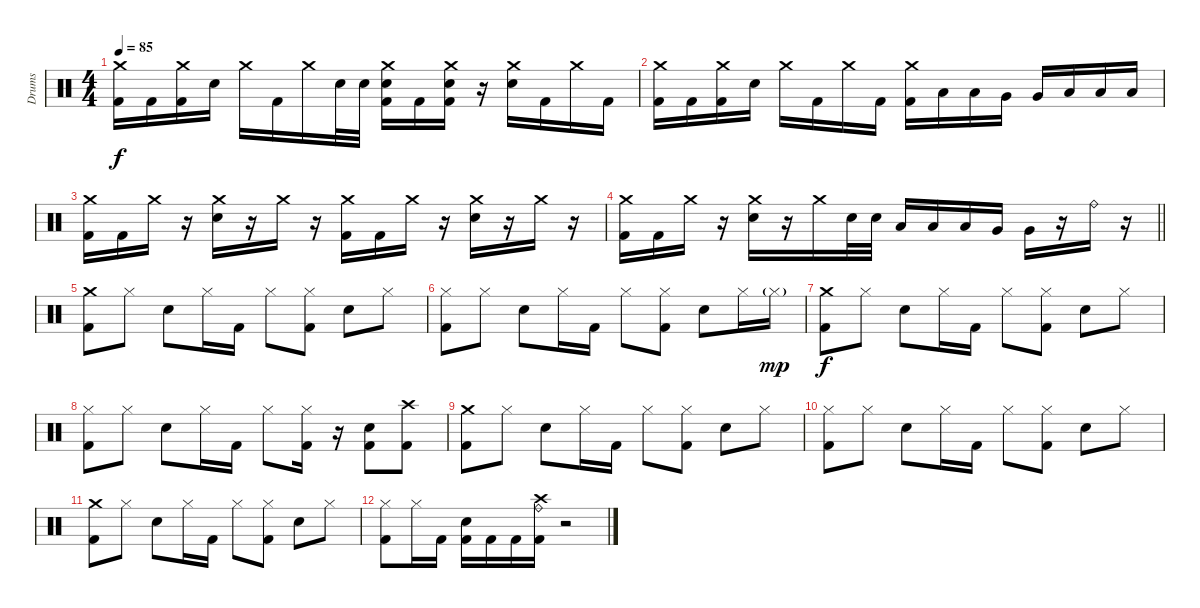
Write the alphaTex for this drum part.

\track ("Drums" "Drums") {instrument percussion}
\staff {score}
\articulation defaults
\ts (4 4)
\tempo 85
\clef neutral
\ks c
("Crash medium (hit)" "Kick (hit) 2").16{dy f} "Kick (hit) 2".16 ("Crash medium (hit)" "Kick (hit) 2").16 "Snare (hit) 2".16 "Crash medium (hit)".16 "Kick (hit) 2".16 "Crash medium (hit)".16 "Snare (hit) 2".32 "Snare (hit) 2".32 ("Crash medium (hit)" "Snare (hit) 2" "Kick (hit) 2").16 "Kick (hit) 2".16 ("Crash medium (hit)" "Snare (hit) 2" "Kick (hit) 2").16 r.16 ("Crash medium (hit)" "Snare (hit) 2").16 "Kick (hit) 2".16 "Crash medium (hit)".16 "Kick (hit) 2".16 |
("Crash medium (hit)" "Kick (hit) 2").16 "Kick (hit) 2".16 ("Crash medium (hit)" "Kick (hit) 2").16 "Snare (hit) 2".16 "Crash medium (hit)".16 "Kick (hit) 2".16 "Crash medium (hit)".16 "Kick (hit) 2".16 ("Crash medium (hit)" "Kick (hit) 2").16 "Low Tom (hit)".16 "Low Tom (hit)".16 "Very Low Tom (hit)".16 "Very Low Tom (hit)".16 "Low Floor Tom (hit)".16 "Low Floor Tom (hit)".16 "Low Floor Tom (hit)".16 |
("Crash medium (hit)" "Kick (hit) 2").16 "Kick (hit) 2".16 "Crash medium (hit)".16 r.16 ("Crash medium (hit)" "Snare (hit) 2").16 r.16 "Crash medium (hit)".16 r.16 ("Crash medium (hit)" "Kick (hit) 2").16 "Kick (hit) 2".16 "Crash medium (hit)".16 r.16 ("Crash medium (hit)" "Snare (hit) 2").16 r.16 "Crash medium (hit)".16 r.16 |
\barLineRight lightlight
("Crash medium (hit)" "Kick (hit) 2").16 "Kick (hit) 2".16 "Crash medium (hit)".16 r.16 ("Crash medium (hit)" "Snare (hit) 2").16 r.16 "Crash medium (hit)".16 "Snare (hit) 2".32 "Snare (hit) 2".32 "Low Floor Tom (hit)".16 "Low Tom (hit)".16 "Low Tom (hit)".16 "Very Low Tom (hit)".16 "Very Low Tom (hit)".16 r.16 "Ride (bell)".16 r.16 |
("Crash medium (hit)" "Kick (hit) 2").8 "Hi-Hat (closed)".8 "Snare (hit) 2".8 "Hi-Hat (closed)".16 "Kick (hit) 2".16 "Hi-Hat (closed)".8 ("Hi-Hat (closed)" "Kick (hit) 2").8 "Snare (hit) 2".8 "Hi-Hat (closed)".8 |
("Hi-Hat (closed)" "Kick (hit) 2").8 "Hi-Hat (closed)".8 "Snare (hit) 2".8 "Hi-Hat (closed)".16 "Kick (hit) 2".16 "Hi-Hat (closed)".8 ("Hi-Hat (closed)" "Kick (hit) 2").8 "Snare (hit) 2".8 "Hi-Hat (closed)".16 "Hi-Hat (closed)"{g}.16{dy mp} |
("Crash medium (hit)" "Kick (hit) 2").8{dy f} "Hi-Hat (closed)".8 "Snare (hit) 2".8 "Hi-Hat (closed)".16 "Kick (hit) 2".16 "Hi-Hat (closed)".8 ("Hi-Hat (closed)" "Kick (hit) 2").8 "Snare (hit) 2".8 "Hi-Hat (closed)".8 |
("Hi-Hat (closed)" "Kick (hit) 2").8 "Hi-Hat (closed)".8 "Snare (hit) 2".8 "Hi-Hat (closed)".16 "Kick (hit) 2".16 "Hi-Hat (closed)".8 ("Hi-Hat (closed)" "Kick (hit) 2").16 r.16 ("Snare (hit) 2" "Kick (hit) 2").8 ("Crash high (hit)" "Kick (hit) 2").8 |
("Crash medium (hit)" "Kick (hit) 2").8 "Hi-Hat (closed)".8 "Snare (hit) 2".8 "Hi-Hat (closed)".16 "Kick (hit) 2".16 "Hi-Hat (closed)".8 ("Hi-Hat (closed)" "Kick (hit) 2").8 "Snare (hit) 2".8 "Hi-Hat (closed)".8 |
("Hi-Hat (closed)" "Kick (hit) 2").8 "Hi-Hat (closed)".8 "Snare (hit) 2".8 "Hi-Hat (closed)".16 "Kick (hit) 2".16 "Hi-Hat (closed)".8 ("Hi-Hat (closed)" "Kick (hit) 2").8 "Snare (hit) 2".8 "Hi-Hat (closed)".8 |
("Crash medium (hit)" "Kick (hit) 2").8 "Hi-Hat (closed)".8 "Snare (hit) 2".8 "Hi-Hat (closed)".16 "Kick (hit) 2".16 "Hi-Hat (closed)".8 ("Hi-Hat (closed)" "Kick (hit) 2").8 "Snare (hit) 2".8 "Hi-Hat (closed)".8 |
("Hi-Hat (closed)" "Kick (hit) 2").8 "Hi-Hat (closed)".16 "Kick (hit) 2".16 ("Snare (hit) 2" "Kick (hit) 2").16 "Kick (hit) 2".16 "Kick (hit) 2".16 ("Crash high (hit)" "Ride (bell)" "Kick (hit) 2").16 r.2
